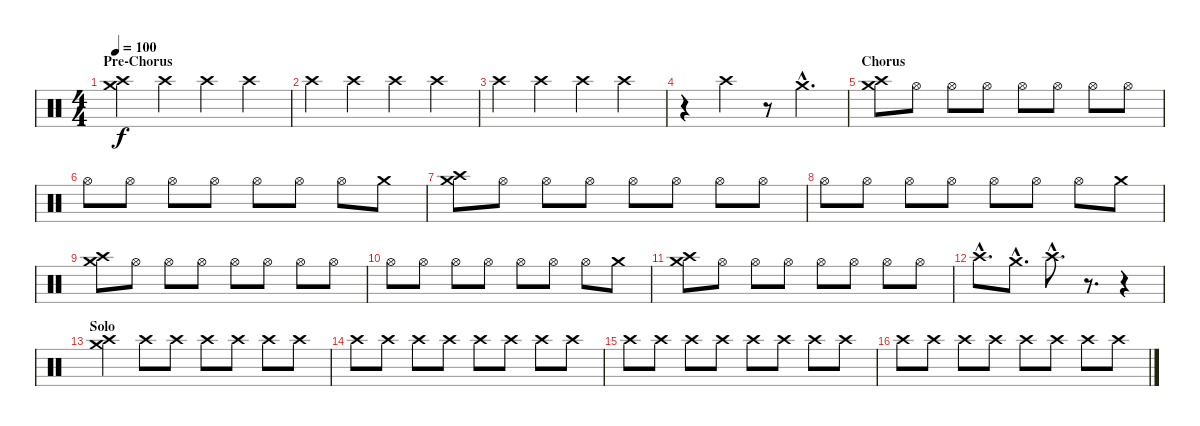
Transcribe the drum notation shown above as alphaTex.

\track "" {instrument percussion}
\staff {score}
\articulation defaults
\ts (4 4)
\section ("" "Pre-Chorus")
\tempo 100
\clef neutral
\ks c
("Crash medium (hit)" "Crash high (hit)").4{dy f} "Crash high (hit)".4 "Crash high (hit)".4 "Crash high (hit)".4 |
"Crash high (hit)".4 "Crash high (hit)".4 "Crash high (hit)".4 "Crash high (hit)".4 |
"Crash high (hit)".4 "Crash high (hit)".4 "Crash high (hit)".4 "Crash high (hit)".4 |
r.4 "Crash high (hit)".4 r.8 "Crash medium (hit)"{hac}.4{d} |
\section ("" "Chorus")
("Crash medium (hit)" "Crash high (hit)").8 "Hi-Hat (open)".8 "Hi-Hat (open)".8 "Hi-Hat (open)".8 "Hi-Hat (open)".8 "Hi-Hat (open)".8 "Hi-Hat (open)".8 "Hi-Hat (open)".8 |
"Hi-Hat (open)".8 "Hi-Hat (open)".8 "Hi-Hat (open)".8 "Hi-Hat (open)".8 "Hi-Hat (open)".8 "Hi-Hat (open)".8 "Hi-Hat (open)".8 "Crash medium (hit)".8 |
("Crash medium (hit)" "Crash high (hit)").8 "Hi-Hat (open)".8 "Hi-Hat (open)".8 "Hi-Hat (open)".8 "Hi-Hat (open)".8 "Hi-Hat (open)".8 "Hi-Hat (open)".8 "Hi-Hat (open)".8 |
"Hi-Hat (open)".8 "Hi-Hat (open)".8 "Hi-Hat (open)".8 "Hi-Hat (open)".8 "Hi-Hat (open)".8 "Hi-Hat (open)".8 "Hi-Hat (open)".8 "Crash medium (hit)".8 |
("Crash medium (hit)" "Crash high (hit)").8 "Hi-Hat (open)".8 "Hi-Hat (open)".8 "Hi-Hat (open)".8 "Hi-Hat (open)".8 "Hi-Hat (open)".8 "Hi-Hat (open)".8 "Hi-Hat (open)".8 |
"Hi-Hat (open)".8 "Hi-Hat (open)".8 "Hi-Hat (open)".8 "Hi-Hat (open)".8 "Hi-Hat (open)".8 "Hi-Hat (open)".8 "Hi-Hat (open)".8 "Crash medium (hit)".8 |
("Crash medium (hit)" "Crash high (hit)").8 "Hi-Hat (open)".8 "Hi-Hat (open)".8 "Hi-Hat (open)".8 "Hi-Hat (open)".8 "Hi-Hat (open)".8 "Hi-Hat (open)".8 "Hi-Hat (open)".8 |
"Crash high (hit)"{hac}.8{d} "Crash medium (hit)"{hac}.8{d} "Crash high (hit)"{hac}.8{d} r.8{d} r.4 |
\section ("" "Solo")
("Crash medium (hit)" "Crash high (hit)").4 "Crash high (hit)".8 "Crash high (hit)".8 "Crash high (hit)".8 "Crash high (hit)".8 "Crash high (hit)".8 "Crash high (hit)".8 |
"Crash high (hit)".8 "Crash high (hit)".8 "Crash high (hit)".8 "Crash high (hit)".8 "Crash high (hit)".8 "Crash high (hit)".8 "Crash high (hit)".8 "Crash high (hit)".8 |
"Crash high (hit)".8 "Crash high (hit)".8 "Crash high (hit)".8 "Crash high (hit)".8 "Crash high (hit)".8 "Crash high (hit)".8 "Crash high (hit)".8 "Crash high (hit)".8 |
"Crash high (hit)".8 "Crash high (hit)".8 "Crash high (hit)".8 "Crash high (hit)".8 "Crash high (hit)".8 "Crash high (hit)".8 "Crash high (hit)".8 "Crash high (hit)".8
